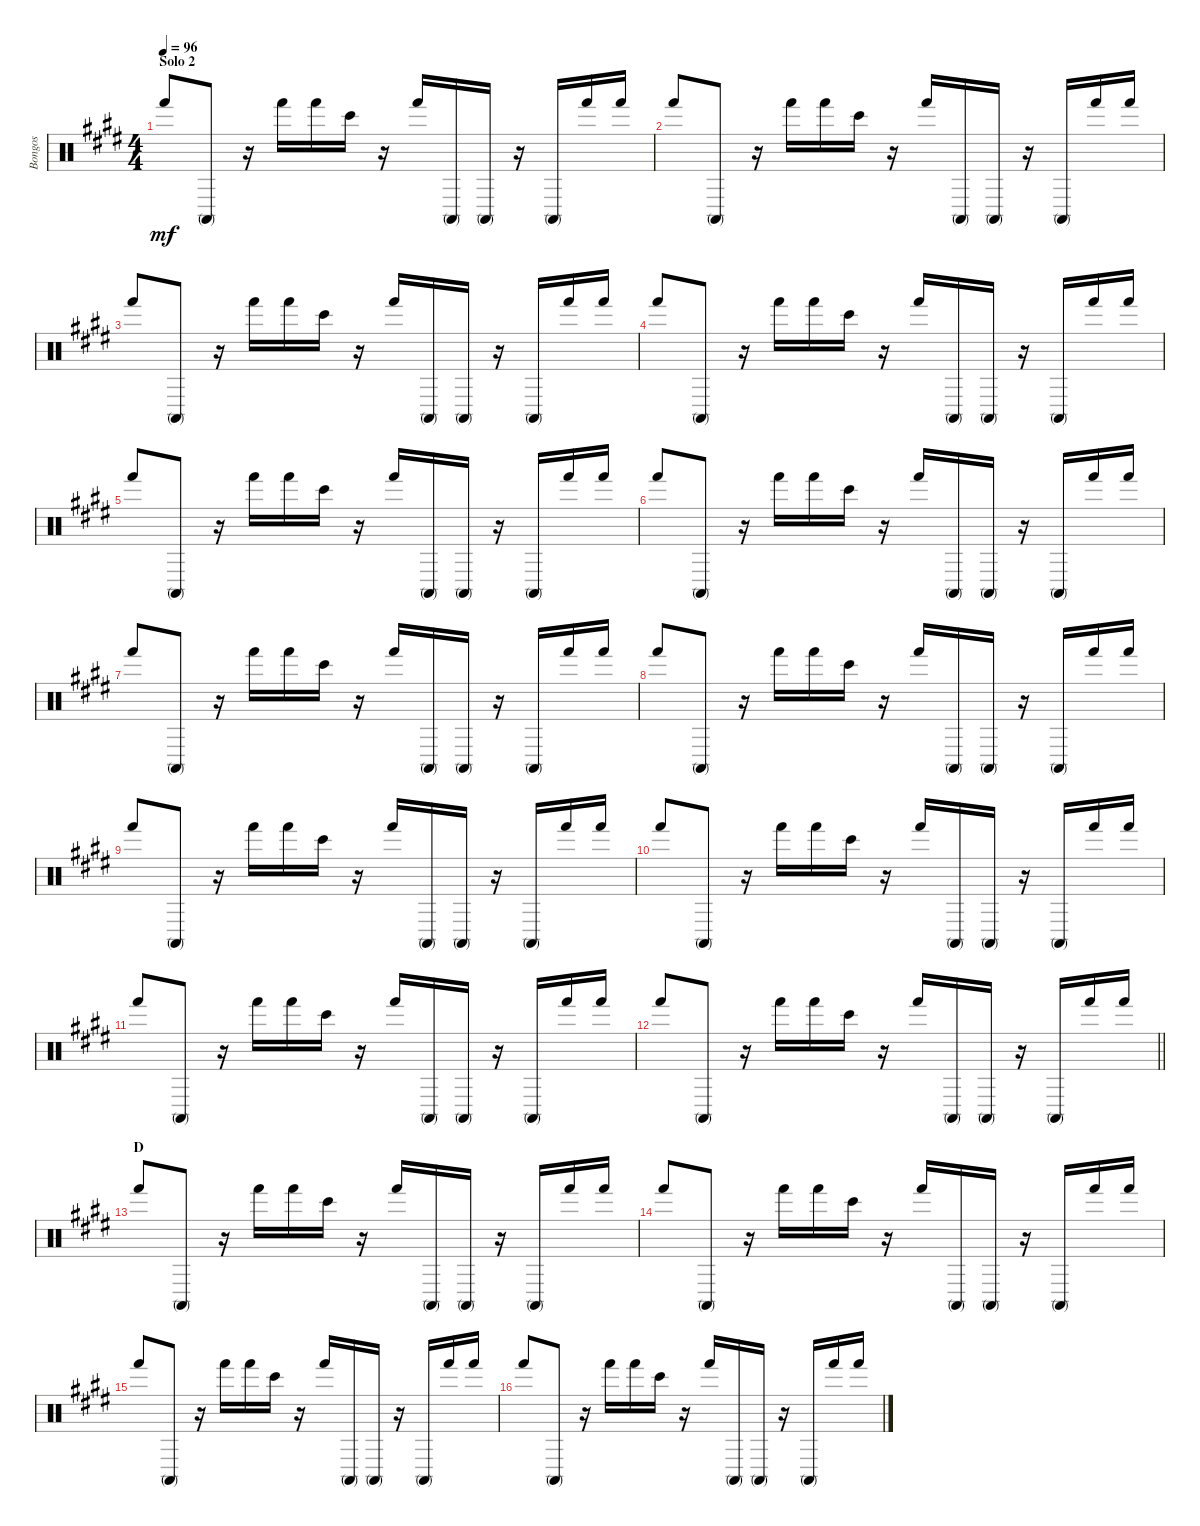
\track ("Bongos" "Bongos") {instrument percussion}
\staff {score}
\articulation defaults
\ts (4 4)
\section ("" "Solo 2")
\tempo 96
\clef neutral
\ks e "Hand (hit)".8{dy mf} "Conga high (mute)".8
r.16 "Hand (hit)".16 "Hand (hit)".16 "Bongo High (hit)".16 r.16 "Hand (hit)".16 "Conga high (mute)".16 "Conga high (mute)".16 r.16 "Conga high (mute)".16 "Hand (hit)".16 "Hand (hit)".16 |
"Hand (hit)".8 "Conga high (mute)".8 r.16 "Hand (hit)".16 "Hand (hit)".16 "Bongo High (hit)".16 r.16 "Hand (hit)".16 "Conga high (mute)".16 "Conga high (mute)".16 r.16 "Conga high (mute)".16 "Hand (hit)".16 "Hand (hit)".16 |
"Hand (hit)".8 "Conga high (mute)".8 r.16 "Hand (hit)".16 "Hand (hit)".16 "Bongo High (hit)".16 r.16 "Hand (hit)".16 "Conga high (mute)".16 "Conga high (mute)".16 r.16 "Conga high (mute)".16 "Hand (hit)".16 "Hand (hit)".16 |
"Hand (hit)".8 "Conga high (mute)".8 r.16 "Hand (hit)".16 "Hand (hit)".16 "Bongo High (hit)".16 r.16 "Hand (hit)".16 "Conga high (mute)".16 "Conga high (mute)".16 r.16 "Conga high (mute)".16 "Hand (hit)".16 "Hand (hit)".16 |
"Hand (hit)".8 "Conga high (mute)".8 r.16 "Hand (hit)".16 "Hand (hit)".16 "Bongo High (hit)".16 r.16 "Hand (hit)".16 "Conga high (mute)".16 "Conga high (mute)".16 r.16 "Conga high (mute)".16 "Hand (hit)".16 "Hand (hit)".16 |
"Hand (hit)".8 "Conga high (mute)".8 r.16 "Hand (hit)".16 "Hand (hit)".16 "Bongo High (hit)".16 r.16 "Hand (hit)".16 "Conga high (mute)".16 "Conga high (mute)".16 r.16 "Conga high (mute)".16 "Hand (hit)".16 "Hand (hit)".16 |
"Hand (hit)".8 "Conga high (mute)".8 r.16 "Hand (hit)".16 "Hand (hit)".16 "Bongo High (hit)".16 r.16 "Hand (hit)".16 "Conga high (mute)".16 "Conga high (mute)".16 r.16 "Conga high (mute)".16 "Hand (hit)".16 "Hand (hit)".16 |
"Hand (hit)".8 "Conga high (mute)".8 r.16 "Hand (hit)".16 "Hand (hit)".16 "Bongo High (hit)".16 r.16 "Hand (hit)".16 "Conga high (mute)".16 "Conga high (mute)".16 r.16 "Conga high (mute)".16 "Hand (hit)".16 "Hand (hit)".16 |
"Hand (hit)".8 "Conga high (mute)".8 r.16 "Hand (hit)".16 "Hand (hit)".16 "Bongo High (hit)".16 r.16 "Hand (hit)".16 "Conga high (mute)".16 "Conga high (mute)".16 r.16 "Conga high (mute)".16 "Hand (hit)".16 "Hand (hit)".16 |
"Hand (hit)".8 "Conga high (mute)".8 r.16 "Hand (hit)".16 "Hand (hit)".16 "Bongo High (hit)".16 r.16 "Hand (hit)".16 "Conga high (mute)".16 "Conga high (mute)".16 r.16 "Conga high (mute)".16 "Hand (hit)".16 "Hand (hit)".16 |
"Hand (hit)".8 "Conga high (mute)".8 r.16 "Hand (hit)".16 "Hand (hit)".16 "Bongo High (hit)".16 r.16 "Hand (hit)".16 "Conga high (mute)".16 "Conga high (mute)".16 r.16 "Conga high (mute)".16 "Hand (hit)".16 "Hand (hit)".16 |
\barLineRight lightlight "Hand (hit)".8 "Conga high (mute)".8
r.16 "Hand (hit)".16 "Hand (hit)".16 "Bongo High (hit)".16 r.16 "Hand (hit)".16 "Conga high (mute)".16 "Conga high (mute)".16 r.16 "Conga high (mute)".16 "Hand (hit)".16 "Hand (hit)".16 |
\section ("" "D")
"Hand (hit)".8 "Conga high (mute)".8 r.16 "Hand (hit)".16 "Hand (hit)".16 "Bongo High (hit)".16 r.16 "Hand (hit)".16 "Conga high (mute)".16 "Conga high (mute)".16 r.16 "Conga high (mute)".16 "Hand (hit)".16 "Hand (hit)".16 |
"Hand (hit)".8 "Conga high (mute)".8 r.16 "Hand (hit)".16 "Hand (hit)".16 "Bongo High (hit)".16 r.16 "Hand (hit)".16 "Conga high (mute)".16 "Conga high (mute)".16 r.16 "Conga high (mute)".16 "Hand (hit)".16 "Hand (hit)".16 |
"Hand (hit)".8 "Conga high (mute)".8 r.16 "Hand (hit)".16 "Hand (hit)".16 "Bongo High (hit)".16 r.16 "Hand (hit)".16 "Conga high (mute)".16 "Conga high (mute)".16 r.16 "Conga high (mute)".16 "Hand (hit)".16 "Hand (hit)".16 |
"Hand (hit)".8 "Conga high (mute)".8 r.16 "Hand (hit)".16 "Hand (hit)".16 "Bongo High (hit)".16 r.16 "Hand (hit)".16 "Conga high (mute)".16 "Conga high (mute)".16 r.16 "Conga high (mute)".16 "Hand (hit)".16 "Hand (hit)".16
